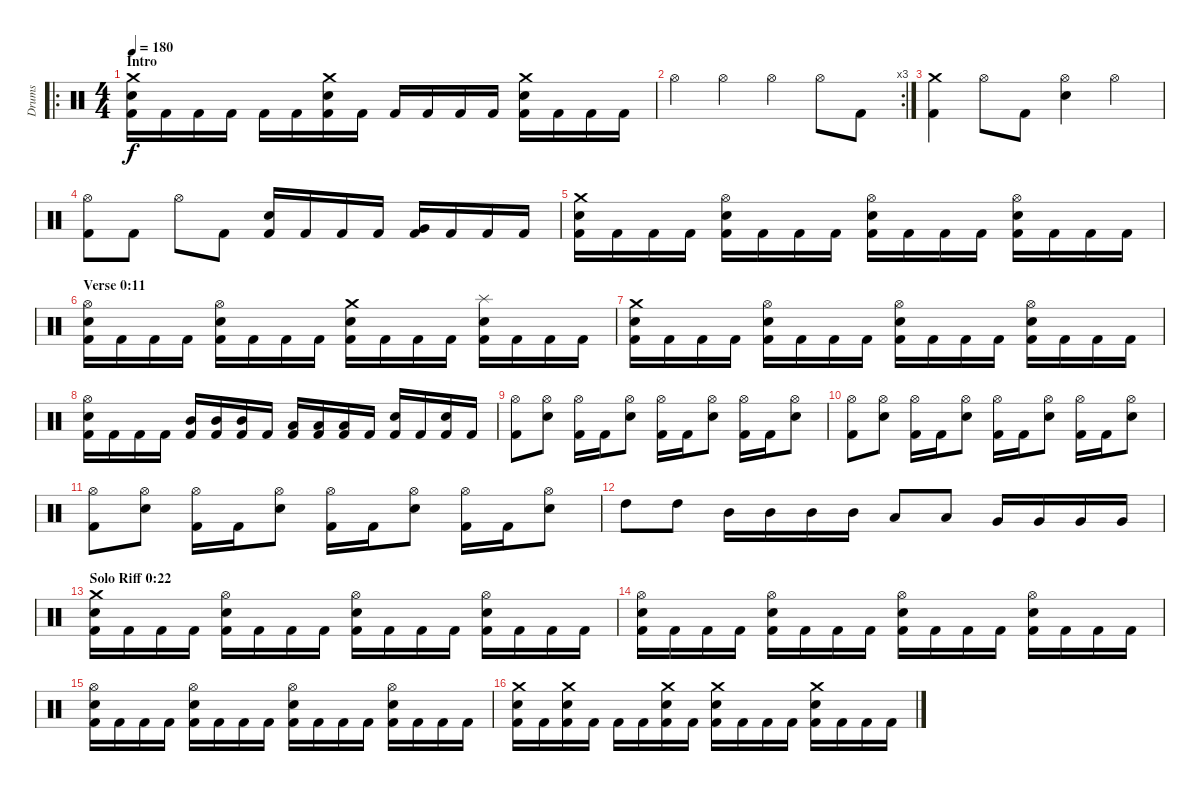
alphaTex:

\track ("Drums" "Drums") {instrument percussion}
\staff {score}
\articulation defaults
\ro
\ts (4 4)
\section ("" "Intro")
\tempo 180
\clef neutral
\ks c
("Crash medium (hit)" "Electric Snare (hit)" "Kick (hit) 2").16{dy f} "Kick (hit) 2".16 "Kick (hit) 2".16 "Kick (hit) 2".16 "Kick (hit) 2".16 "Kick (hit) 2".16 ("Crash medium (hit)" "Electric Snare (hit)" "Kick (hit) 2").16 "Kick (hit) 2".16 "Kick (hit) 2".16 "Kick (hit) 2".16 "Kick (hit) 2".16 "Kick (hit) 2".16 ("Crash medium (hit)" "Electric Snare (hit)" "Kick (hit) 2").16 "Kick (hit) 2".16 "Kick (hit) 2".16 "Kick (hit) 2".16 |
\rc 3 "Hi-Hat (open)".4 "Hi-Hat (open)".4 "Hi-Hat (open)".4 "Hi-Hat (open)".8 "Kick (hit) 2".8
|
("Crash medium (hit)" "Kick (hit) 2").4 "Hi-Hat (open)".8 "Kick (hit) 2".8 ("Electric Snare (hit)" "Hi-Hat (open)").4 "Hi-Hat (open)".4 |
("Hi-Hat (open)" "Kick (hit) 2").8 "Kick (hit) 2".8 "Hi-Hat (open)".8 "Kick (hit) 2".8 ("Electric Snare (hit)" "Kick (hit) 2").16 "Kick (hit) 2".16 "Kick (hit) 2".16 "Kick (hit) 2".16 ("Very Low Tom (hit)" "Kick (hit) 2").16 "Kick (hit) 2".16 "Kick (hit) 2".16 "Kick (hit) 2".16 |
("Crash medium (hit)" "Electric Snare (hit)" "Kick (hit) 2").16 "Kick (hit) 2".16 "Kick (hit) 2".16 "Kick (hit) 2".16 ("Hi-Hat (open)" "Electric Snare (hit)" "Kick (hit) 2").16 "Kick (hit) 2".16 "Kick (hit) 2".16 "Kick (hit) 2".16 ("Hi-Hat (open)" "Electric Snare (hit)" "Kick (hit) 2").16 "Kick (hit) 2".16 "Kick (hit) 2".16 "Kick (hit) 2".16 ("Hi-Hat (open)" "Electric Snare (hit)" "Kick (hit) 2").16 "Kick (hit) 2".16 "Kick (hit) 2".16 "Kick (hit) 2".16 |
\section ("" "Verse 0:11")
("Hi-Hat (open)" "Electric Snare (hit)" "Kick (hit) 2").16 "Kick (hit) 2".16 "Kick (hit) 2".16 "Kick (hit) 2".16 ("Hi-Hat (open)" "Electric Snare (hit)" "Kick (hit) 2").16 "Kick (hit) 2".16 "Kick (hit) 2".16 "Kick (hit) 2".16 ("Crash medium (hit)" "Electric Snare (hit)" "Kick (hit) 2").16 "Kick (hit) 2".16 "Kick (hit) 2".16 "Kick (hit) 2".16 ("Splash (hit)" "Electric Snare (hit)" "Kick (hit) 2").16 "Kick (hit) 2".16 "Kick (hit) 2".16 "Kick (hit) 2".16 |
("Crash medium (hit)" "Electric Snare (hit)" "Kick (hit) 2").16 "Kick (hit) 2".16 "Kick (hit) 2".16 "Kick (hit) 2".16 ("Hi-Hat (open)" "Electric Snare (hit)" "Kick (hit) 2").16 "Kick (hit) 2".16 "Kick (hit) 2".16 "Kick (hit) 2".16 ("Hi-Hat (open)" "Electric Snare (hit)" "Kick (hit) 2").16 "Kick (hit) 2".16 "Kick (hit) 2".16 "Kick (hit) 2".16 ("Hi-Hat (open)" "Electric Snare (hit)" "Kick (hit) 2").16 "Kick (hit) 2".16 "Kick (hit) 2".16 "Kick (hit) 2".16 |
("Hi-Hat (open)" "Electric Snare (hit)" "Kick (hit) 2").16 "Kick (hit) 2".16 "Kick (hit) 2".16 "Kick (hit) 2".16 ("Mid Tom (hit)" "Kick (hit) 2").16 ("Mid Tom (hit)" "Kick (hit) 2").16 ("Mid Tom (hit)" "Kick (hit) 2").16 "Kick (hit) 2".16 ("Low Tom (hit)" "Kick (hit) 2").16 ("Low Tom (hit)" "Kick (hit) 2").16 ("Low Tom (hit)" "Kick (hit) 2").16 "Kick (hit) 2".16 ("Electric Snare (hit)" "Kick (hit) 2").16 "Kick (hit) 2".16 ("Electric Snare (hit)" "Kick (hit) 2").16 "Kick (hit) 2".16 |
("Hi-Hat (open)" "Kick (hit) 2").8 ("Hi-Hat (open)" "Electric Snare (hit)").8 ("Hi-Hat (open)" "Kick (hit) 2").16 "Kick (hit) 2".16 ("Hi-Hat (open)" "Electric Snare (hit)").8 ("Hi-Hat (open)" "Kick (hit) 2").16 "Kick (hit) 2".16 ("Hi-Hat (open)" "Electric Snare (hit)").8 ("Hi-Hat (open)" "Kick (hit) 2").16 "Kick (hit) 2".16 ("Hi-Hat (open)" "Electric Snare (hit)").8 |
("Hi-Hat (open)" "Kick (hit) 2").8 ("Hi-Hat (open)" "Electric Snare (hit)").8 ("Hi-Hat (open)" "Kick (hit) 2").16 "Kick (hit) 2".16 ("Hi-Hat (open)" "Electric Snare (hit)").8 ("Hi-Hat (open)" "Kick (hit) 2").16 "Kick (hit) 2".16 ("Hi-Hat (open)" "Electric Snare (hit)").8 ("Hi-Hat (open)" "Kick (hit) 2").16 "Kick (hit) 2".16 ("Hi-Hat (open)" "Electric Snare (hit)").8 |
("Hi-Hat (open)" "Kick (hit) 2").8 ("Hi-Hat (open)" "Electric Snare (hit)").8 ("Hi-Hat (open)" "Kick (hit) 2").16 "Kick (hit) 2".16 ("Hi-Hat (open)" "Electric Snare (hit)").8 ("Hi-Hat (open)" "Kick (hit) 2").16 "Kick (hit) 2".16 ("Hi-Hat (open)" "Electric Snare (hit)").8 ("Hi-Hat (open)" "Kick (hit) 2").16 "Kick (hit) 2".16 ("Hi-Hat (open)" "Electric Snare (hit)").8 |
"High Tom (hit)".8 "High Tom (hit)".8 "Mid Tom (hit)".16 "Mid Tom (hit)".16 "Mid Tom (hit)".16 "Mid Tom (hit)".16 "Low Tom (hit)".8 "Low Tom (hit)".8 "Very Low Tom (hit)".16 "Very Low Tom (hit)".16 "Very Low Tom (hit)".16 "Very Low Tom (hit)".16 |
\section ("" "Solo Riff 0:22")
("Crash medium (hit)" "Electric Snare (hit)" "Kick (hit) 2").16 "Kick (hit) 2".16 "Kick (hit) 2".16 "Kick (hit) 2".16 ("Hi-Hat (open)" "Electric Snare (hit)" "Kick (hit) 2").16 "Kick (hit) 2".16 "Kick (hit) 2".16 "Kick (hit) 2".16 ("Hi-Hat (open)" "Electric Snare (hit)" "Kick (hit) 2").16 "Kick (hit) 2".16 "Kick (hit) 2".16 "Kick (hit) 2".16 ("Hi-Hat (open)" "Electric Snare (hit)" "Kick (hit) 2").16 "Kick (hit) 2".16 "Kick (hit) 2".16 "Kick (hit) 2".16 |
("Hi-Hat (open)" "Electric Snare (hit)" "Kick (hit) 2").16 "Kick (hit) 2".16 "Kick (hit) 2".16 "Kick (hit) 2".16 ("Hi-Hat (open)" "Electric Snare (hit)" "Kick (hit) 2").16 "Kick (hit) 2".16 "Kick (hit) 2".16 "Kick (hit) 2".16 ("Hi-Hat (open)" "Electric Snare (hit)" "Kick (hit) 2").16 "Kick (hit) 2".16 "Kick (hit) 2".16 "Kick (hit) 2".16 ("Hi-Hat (open)" "Electric Snare (hit)" "Kick (hit) 2").16 "Kick (hit) 2".16 "Kick (hit) 2".16 "Kick (hit) 2".16 |
("Hi-Hat (open)" "Electric Snare (hit)" "Kick (hit) 2").16 "Kick (hit) 2".16 "Kick (hit) 2".16 "Kick (hit) 2".16 ("Hi-Hat (open)" "Electric Snare (hit)" "Kick (hit) 2").16 "Kick (hit) 2".16 "Kick (hit) 2".16 "Kick (hit) 2".16 ("Hi-Hat (open)" "Electric Snare (hit)" "Kick (hit) 2").16 "Kick (hit) 2".16 "Kick (hit) 2".16 "Kick (hit) 2".16 ("Hi-Hat (open)" "Electric Snare (hit)" "Kick (hit) 2").16 "Kick (hit) 2".16 "Kick (hit) 2".16 "Kick (hit) 2".16 |
("Crash medium (hit)" "Electric Snare (hit)" "Kick (hit) 2").16 "Kick (hit) 2".16 ("Crash medium (hit)" "Electric Snare (hit)" "Kick (hit) 2").16 "Kick (hit) 2".16 "Kick (hit) 2".16 "Kick (hit) 2".16 ("Crash medium (hit)" "Electric Snare (hit)" "Kick (hit) 2").16 "Kick (hit) 2".16 ("Crash medium (hit)" "Electric Snare (hit)" "Kick (hit) 2").16 "Kick (hit) 2".16 "Kick (hit) 2".16 "Kick (hit) 2".16 ("Crash medium (hit)" "Electric Snare (hit)" "Kick (hit) 2").16 "Kick (hit) 2".16 "Kick (hit) 2".16 "Kick (hit) 2".16
